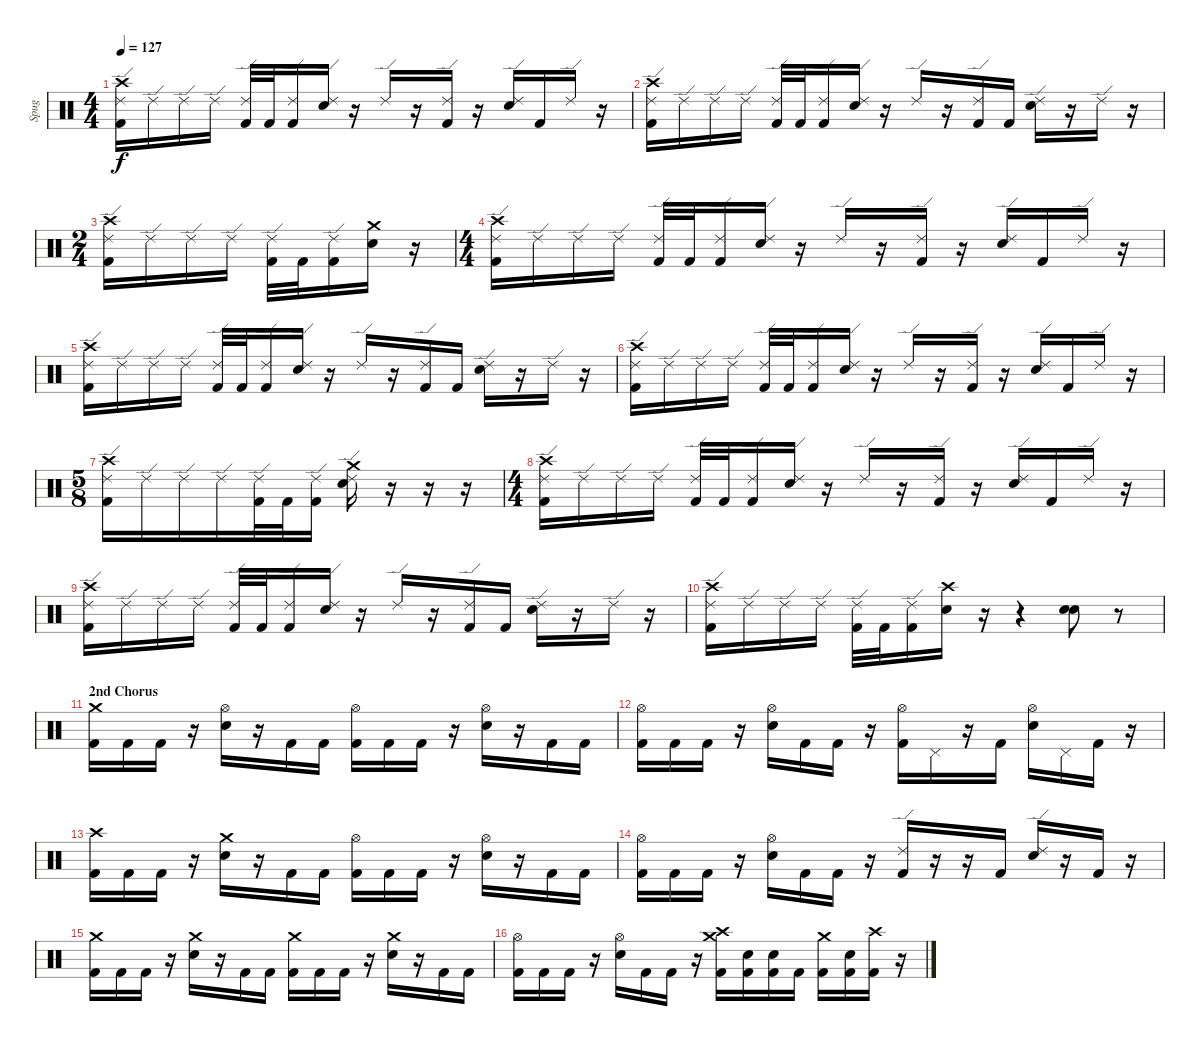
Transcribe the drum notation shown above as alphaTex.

\track ("Spug" "Spug") {instrument percussion}
\staff {score}
\articulation defaults
\ts (4 4)
\tempo 127
\clef neutral
\ks c
("Crash high (hit)" "Ride (edge) 2" "Kick (hit) 2").16{dy f} "Ride (edge) 2".16 "Ride (edge) 2".16 "Ride (edge) 2".16 ("Ride (edge) 2" "Kick (hit) 2").32 "Kick (hit) 2".32 ("Ride (edge) 2" "Kick (hit) 2").16 ("Ride (edge) 2" "Electric Snare (hit)").16 r.16 "Ride (edge) 2".16 r.16 ("Ride (edge) 2" "Kick (hit) 2").16 r.16 ("Ride (edge) 2" "Electric Snare (hit)").16 "Kick (hit) 2".16 "Ride (edge) 2".16 r.16 |
("Crash high (hit)" "Ride (edge) 2" "Kick (hit) 2").16 "Ride (edge) 2".16 "Ride (edge) 2".16 "Ride (edge) 2".16 ("Ride (edge) 2" "Kick (hit) 2").32 "Kick (hit) 2".32 ("Ride (edge) 2" "Kick (hit) 2").16 ("Ride (edge) 2" "Electric Snare (hit)").16 r.16 "Ride (edge) 2".16 r.16 ("Ride (edge) 2" "Kick (hit) 2").16 "Kick (hit) 2".16 ("Ride (edge) 2" "Electric Snare (hit)").16 r.16 "Ride (edge) 2".16 r.16 |
\ts (2 4)
("Crash high (hit)" "Ride (edge) 2" "Kick (hit) 2").16 "Ride (edge) 2".16 "Ride (edge) 2".16 "Ride (edge) 2".16 ("Ride (edge) 2" "Kick (hit) 2").32 "Kick (hit) 2".32 ("Ride (edge) 2" "Kick (hit) 2").16 ("Crash medium (hit)" "Electric Snare (hit)").16 r.16 |
\ts (4 4)
("Crash high (hit)" "Ride (edge) 2" "Kick (hit) 2").16 "Ride (edge) 2".16 "Ride (edge) 2".16 "Ride (edge) 2".16 ("Ride (edge) 2" "Kick (hit) 2").32 "Kick (hit) 2".32 ("Ride (edge) 2" "Kick (hit) 2").16 ("Ride (edge) 2" "Electric Snare (hit)").16 r.16 "Ride (edge) 2".16 r.16 ("Ride (edge) 2" "Kick (hit) 2").16 r.16 ("Ride (edge) 2" "Electric Snare (hit)").16 "Kick (hit) 2".16 "Ride (edge) 2".16 r.16 |
("Crash high (hit)" "Ride (edge) 2" "Kick (hit) 2").16 "Ride (edge) 2".16 "Ride (edge) 2".16 "Ride (edge) 2".16 ("Ride (edge) 2" "Kick (hit) 2").32 "Kick (hit) 2".32 ("Ride (edge) 2" "Kick (hit) 2").16 ("Ride (edge) 2" "Electric Snare (hit)").16 r.16 "Ride (edge) 2".16 r.16 ("Ride (edge) 2" "Kick (hit) 2").16 "Kick (hit) 2".16 ("Ride (edge) 2" "Electric Snare (hit)").16 r.16 "Ride (edge) 2".16 r.16 |
("Crash high (hit)" "Ride (edge) 2" "Kick (hit) 2").16 "Ride (edge) 2".16 "Ride (edge) 2".16 "Ride (edge) 2".16 ("Ride (edge) 2" "Kick (hit) 2").32 "Kick (hit) 2".32 ("Ride (edge) 2" "Kick (hit) 2").16 ("Ride (edge) 2" "Electric Snare (hit)").16 r.16 "Ride (edge) 2".16 r.16 ("Ride (edge) 2" "Kick (hit) 2").16 r.16 ("Ride (edge) 2" "Electric Snare (hit)").16 "Kick (hit) 2".16 "Ride (edge) 2".16 r.16 |
\ts (5 8)
("Crash high (hit)" "Ride (edge) 2" "Kick (hit) 2").16 "Ride (edge) 2".16 "Ride (edge) 2".16 "Ride (edge) 2".16 ("Ride (edge) 2" "Kick (hit) 2").32 "Kick (hit) 2".32 ("Ride (edge) 2" "Kick (hit) 2").16 ("Crash medium (hit)" "Ride (edge) 2" "Electric Snare (hit)").16 r.16 r.16 r.16 |
\ts (4 4)
("Crash high (hit)" "Ride (edge) 2" "Kick (hit) 2").16 "Ride (edge) 2".16 "Ride (edge) 2".16 "Ride (edge) 2".16 ("Ride (edge) 2" "Kick (hit) 2").32 "Kick (hit) 2".32 ("Ride (edge) 2" "Kick (hit) 2").16 ("Ride (edge) 2" "Electric Snare (hit)").16 r.16 "Ride (edge) 2".16 r.16 ("Ride (edge) 2" "Kick (hit) 2").16 r.16 ("Ride (edge) 2" "Electric Snare (hit)").16 "Kick (hit) 2".16 "Ride (edge) 2".16 r.16 |
("Crash high (hit)" "Ride (edge) 2" "Kick (hit) 2").16 "Ride (edge) 2".16 "Ride (edge) 2".16 "Ride (edge) 2".16 ("Ride (edge) 2" "Kick (hit) 2").32 "Kick (hit) 2".32 ("Ride (edge) 2" "Kick (hit) 2").16 ("Ride (edge) 2" "Electric Snare (hit)").16 r.16 "Ride (edge) 2".16 r.16 ("Ride (edge) 2" "Kick (hit) 2").16 "Kick (hit) 2".16 ("Ride (edge) 2" "Electric Snare (hit)").16 r.16 "Ride (edge) 2".16 r.16 |
("Crash high (hit)" "Ride (edge) 2" "Kick (hit) 2").16 "Ride (edge) 2".16 "Ride (edge) 2".16 "Ride (edge) 2".16 ("Ride (edge) 2" "Kick (hit) 2").32 "Kick (hit) 2".32 ("Ride (edge) 2" "Kick (hit) 2").16 ("Crash high (hit)" "Electric Snare (hit)").16 r.16 r.4 ("Electric Snare (hit)" "Electric Snare (hit)").8{bd 480} r.8 |
\section ("" "2nd Chorus")
("Crash medium (hit)" "Kick (hit) 2").16 "Kick (hit) 2".16 "Kick (hit) 2".16 r.16 ("Hi-Hat (open)" "Electric Snare (hit)").16 r.16 "Kick (hit) 2".16 "Kick (hit) 2".16 ("Hi-Hat (open)" "Kick (hit) 2").16 "Kick (hit) 2".16 "Kick (hit) 2".16 r.16 ("Hi-Hat (open)" "Electric Snare (hit)").16 r.16 "Kick (hit) 2".16 "Kick (hit) 2".16 |
("Hi-Hat (open)" "Kick (hit) 2").16 "Kick (hit) 2".16 "Kick (hit) 2".16 r.16 ("Hi-Hat (open)" "Electric Snare (hit)").16 "Kick (hit) 2".16 "Kick (hit) 2".16 r.16 ("Hi-Hat (open)" "Kick (hit) 2").16 "Pedal Hi-Hat (hit)".16 r.16 "Kick (hit) 2".16 ("Hi-Hat (open)" "Electric Snare (hit)").16 "Pedal Hi-Hat (hit)".16 "Kick (hit) 2".16 r.16 |
("Crash high (hit)" "Kick (hit) 2").16 "Kick (hit) 2".16 "Kick (hit) 2".16 r.16 ("Crash medium (hit)" "Electric Snare (hit)").16 r.16 "Kick (hit) 2".16 "Kick (hit) 2".16 ("Hi-Hat (open)" "Kick (hit) 2").16 "Kick (hit) 2".16 "Kick (hit) 2".16 r.16 ("Hi-Hat (open)" "Electric Snare (hit)").16 r.16 "Kick (hit) 2".16 "Kick (hit) 2".16 |
("Hi-Hat (open)" "Kick (hit) 2").16 "Kick (hit) 2".16 "Kick (hit) 2".16 r.16 ("Hi-Hat (open)" "Electric Snare (hit)").16 "Kick (hit) 2".16 "Kick (hit) 2".16 r.16 ("Ride (edge) 2" "Kick (hit) 2").16 r.16 r.16 "Kick (hit) 2".16 ("Ride (edge) 2" "Electric Snare (hit)").16 r.16 "Kick (hit) 2".16 r.16 |
("Crash medium (hit)" "Kick (hit) 2").16 "Kick (hit) 2".16 "Kick (hit) 2".16 r.16 ("Crash medium (hit)" "Electric Snare (hit)").16 r.16 "Kick (hit) 2".16 "Kick (hit) 2".16 ("Crash medium (hit)" "Kick (hit) 2").16 "Kick (hit) 2".16 "Kick (hit) 2".16 r.16 ("Crash medium (hit)" "Electric Snare (hit)").16 r.16 "Kick (hit) 2".16 "Kick (hit) 2".16 |
("Hi-Hat (open)" "Kick (hit) 2").16 "Kick (hit) 2".16 "Kick (hit) 2".16 r.16 ("Hi-Hat (open)" "Electric Snare (hit)").16 "Kick (hit) 2".16 "Kick (hit) 2".16 r.16 ("Crash high (hit)" "Crash medium (hit)" "Kick (hit) 2").16 ("Electric Snare (hit)" "Kick (hit) 2").16 ("Electric Snare (hit)" "Kick (hit) 2").16 "Kick (hit) 2".16 ("Crash medium (hit)" "Kick (hit) 2").16 ("Electric Snare (hit)" "Kick (hit) 2").16 ("Crash high (hit)" "Kick (hit) 2").16 r.16
